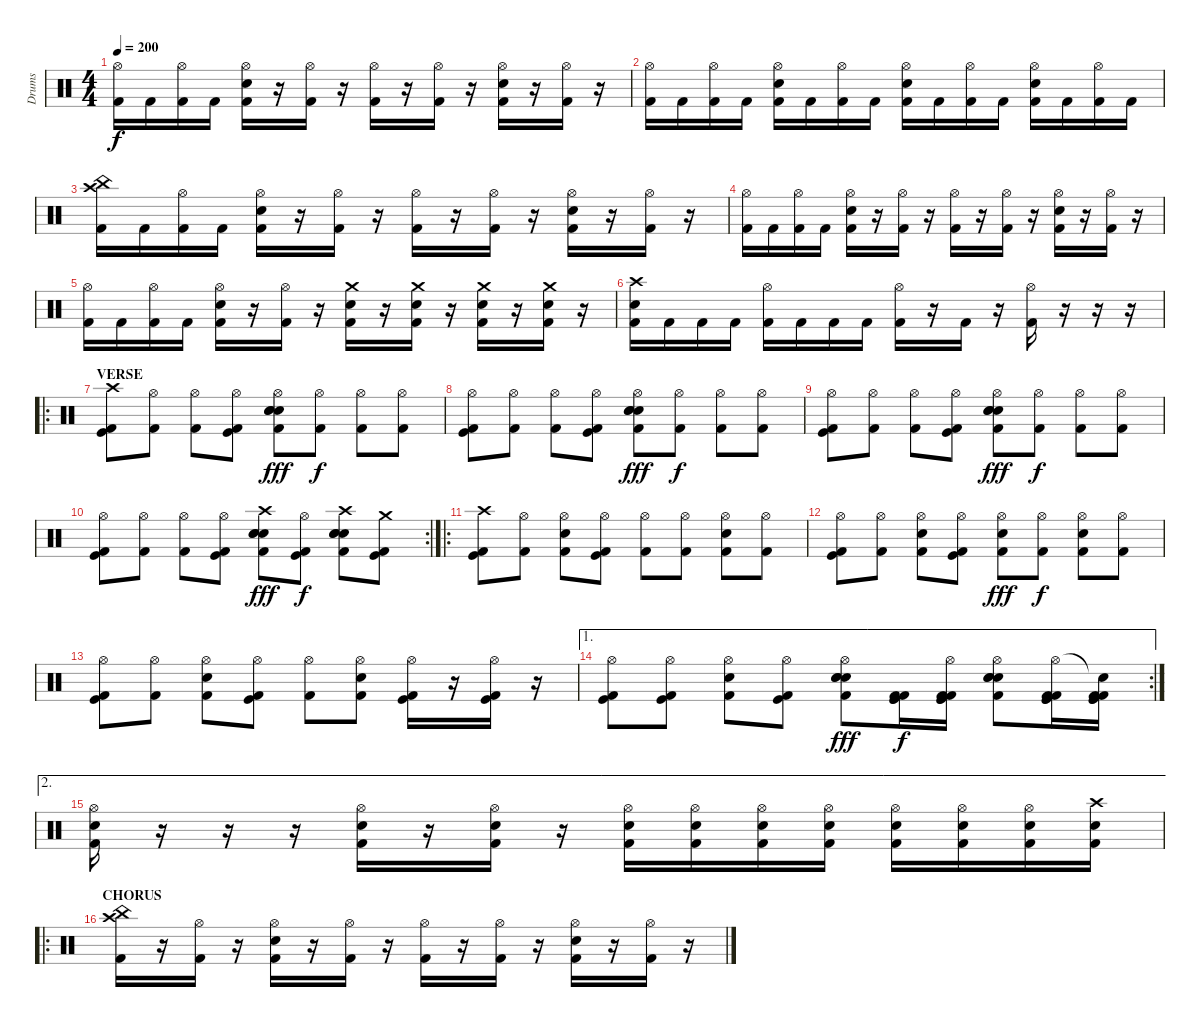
\track ("Drums" "Drums") {instrument percussion}
\staff {score}
\articulation defaults
\ts (4 4)
\tempo 200
\clef neutral
\ks c
("Hi-Hat (open)" "Kick (hit) 2").16{dy f} "Kick (hit) 2".16 ("Hi-Hat (open)" "Kick (hit) 2").16 "Kick (hit) 2".16 ("Hi-Hat (open)" "Electric Snare (hit)" "Kick (hit) 2").16 r.16 ("Hi-Hat (open)" "Kick (hit) 2").16 r.16 ("Hi-Hat (open)" "Kick (hit) 2").16 r.16 ("Hi-Hat (open)" "Kick (hit) 2").16 r.16 ("Hi-Hat (open)" "Electric Snare (hit)" "Kick (hit) 2").16 r.16 ("Hi-Hat (open)" "Kick (hit) 2").16 r.16 |
("Hi-Hat (open)" "Kick (hit) 2").16 "Kick (hit) 2".16 ("Hi-Hat (open)" "Kick (hit) 2").16 "Kick (hit) 2".16 ("Hi-Hat (open)" "Electric Snare (hit)" "Kick (hit) 2").16 "Kick (hit) 2".16 ("Hi-Hat (open)" "Kick (hit) 2").16 "Kick (hit) 2".16 ("Hi-Hat (open)" "Electric Snare (hit)" "Kick (hit) 2").16 "Kick (hit) 2".16 ("Hi-Hat (open)" "Kick (hit) 2").16 "Kick (hit) 2".16 ("Hi-Hat (open)" "Electric Snare (hit)" "Kick (hit) 2").16 "Kick (hit) 2".16 ("Hi-Hat (open)" "Kick (hit) 2").16 "Kick (hit) 2".16 |
("Crash high (hit)" "China (hit)" "Kick (hit) 2").16 "Kick (hit) 2".16 ("Hi-Hat (open)" "Kick (hit) 2").16 "Kick (hit) 2".16 ("Hi-Hat (open)" "Electric Snare (hit)" "Kick (hit) 2").16 r.16 ("Hi-Hat (open)" "Kick (hit) 2").16 r.16 ("Hi-Hat (open)" "Kick (hit) 2").16 r.16 ("Hi-Hat (open)" "Kick (hit) 2").16 r.16 ("Hi-Hat (open)" "Electric Snare (hit)" "Kick (hit) 2").16 r.16 ("Hi-Hat (open)" "Kick (hit) 2").16 r.16 |
("Hi-Hat (open)" "Kick (hit) 2").16 "Kick (hit) 2".16 ("Hi-Hat (open)" "Kick (hit) 2").16 "Kick (hit) 2".16 ("Hi-Hat (open)" "Electric Snare (hit)" "Kick (hit) 2").16 r.16 ("Hi-Hat (open)" "Kick (hit) 2").16 r.16 ("Hi-Hat (open)" "Kick (hit) 2").16 r.16 ("Hi-Hat (open)" "Kick (hit) 2").16 r.16 ("Hi-Hat (open)" "Electric Snare (hit)" "Kick (hit) 2").16 r.16 ("Hi-Hat (open)" "Kick (hit) 2").16 r.16 |
("Hi-Hat (open)" "Kick (hit) 2").16 "Kick (hit) 2".16 ("Hi-Hat (open)" "Kick (hit) 2").16 "Kick (hit) 2".16 ("Hi-Hat (open)" "Electric Snare (hit)" "Kick (hit) 2").16 r.16 ("Hi-Hat (open)" "Kick (hit) 2").16 r.16 ("Crash medium (hit)" "Electric Snare (hit)" "Kick (hit) 2").16 r.16 ("Crash medium (hit)" "Electric Snare (hit)" "Kick (hit) 2").16 r.16 ("Crash medium (hit)" "Electric Snare (hit)" "Kick (hit) 2").16 r.16 ("Crash medium (hit)" "Electric Snare (hit)" "Kick (hit) 2").16 r.16 |
("Kick (hit) 2" "Crash high (hit)" "Electric Snare (hit)").16 "Kick (hit) 2".16 "Kick (hit) 2".16 "Kick (hit) 2".16 ("Kick (hit) 2" "Hi-Hat (open)").16 "Kick (hit) 2".16 "Kick (hit) 2".16 "Kick (hit) 2".16 ("Kick (hit) 2" "Hi-Hat (open)").16 r.16 "Kick (hit) 2".16 r.16 ("Kick (hit) 2" "Hi-Hat (open)").16 r.16 r.16 r.16 |
\ro
\section ("" "VERSE")
("Crash high (hit)" "Kick (hit)" "Kick (hit) 2").8 ("Hi-Hat (open)" "Kick (hit) 2").8 ("Hi-Hat (open)" "Kick (hit) 2").8 ("Hi-Hat (open)" "Kick (hit)" "Kick (hit) 2").8 ("Hi-Hat (open)" "Electric Snare (hit)" "Electric Snare (hit)" "Electric Snare (hit)" "Kick (hit) 2").8{dy fff} ("Hi-Hat (open)" "Kick (hit) 2").8{dy f} ("Hi-Hat (open)" "Kick (hit) 2").8 ("Hi-Hat (open)" "Kick (hit) 2").8 |
("Hi-Hat (open)" "Kick (hit)" "Kick (hit) 2").8 ("Hi-Hat (open)" "Kick (hit) 2").8 ("Hi-Hat (open)" "Kick (hit) 2").8 ("Hi-Hat (open)" "Kick (hit)" "Kick (hit) 2").8 ("Hi-Hat (open)" "Electric Snare (hit)" "Electric Snare (hit)" "Electric Snare (hit)" "Kick (hit) 2").8{dy fff} ("Hi-Hat (open)" "Kick (hit) 2").8{dy f} ("Hi-Hat (open)" "Kick (hit) 2").8 ("Hi-Hat (open)" "Kick (hit) 2").8 |
("Hi-Hat (open)" "Kick (hit)" "Kick (hit) 2").8 ("Hi-Hat (open)" "Kick (hit) 2").8 ("Hi-Hat (open)" "Kick (hit) 2").8 ("Hi-Hat (open)" "Kick (hit)" "Kick (hit) 2").8 ("Hi-Hat (open)" "Electric Snare (hit)" "Electric Snare (hit)" "Electric Snare (hit)" "Kick (hit) 2").8{dy fff} ("Hi-Hat (open)" "Kick (hit) 2").8{dy f} ("Hi-Hat (open)" "Kick (hit) 2").8 ("Hi-Hat (open)" "Kick (hit) 2").8 |
\rc 2
("Hi-Hat (open)" "Kick (hit)" "Kick (hit) 2").8 ("Hi-Hat (open)" "Kick (hit) 2").8 ("Hi-Hat (open)" "Kick (hit) 2").8 ("Hi-Hat (open)" "Kick (hit)" "Kick (hit) 2").8 ("Crash high (hit)" "Electric Snare (hit)" "Electric Snare (hit)" "Electric Snare (hit)" "Kick (hit) 2").8{dy fff} ("Hi-Hat (open)" "Kick (hit)" "Kick (hit) 2").8{dy f} ("Crash high (hit)" "Electric Snare (hit)" "Electric Snare (hit)" "Electric Snare (hit)" "Kick (hit) 2").8 ("Crash medium (hit)" "Kick (hit)" "Kick (hit) 2").8 |
\ro
("Crash high (hit)" "Kick (hit)" "Kick (hit) 2").8 ("Hi-Hat (open)" "Kick (hit) 2").8 ("Hi-Hat (open)" "Electric Snare (hit)" "Kick (hit) 2").8 ("Hi-Hat (open)" "Kick (hit)" "Kick (hit) 2").8 ("Hi-Hat (open)" "Kick (hit) 2").8 ("Hi-Hat (open)" "Kick (hit) 2").8 ("Hi-Hat (open)" "Electric Snare (hit)" "Kick (hit) 2").8 ("Hi-Hat (open)" "Kick (hit) 2").8 |
("Hi-Hat (open)" "Kick (hit)" "Kick (hit) 2").8 ("Hi-Hat (open)" "Kick (hit) 2").8 ("Hi-Hat (open)" "Electric Snare (hit)" "Kick (hit) 2").8 ("Hi-Hat (open)" "Kick (hit)" "Kick (hit) 2").8 ("Hi-Hat (open)" "Electric Snare (hit)" "Kick (hit) 2").8{dy fff} ("Hi-Hat (open)" "Kick (hit) 2").8{dy f} ("Hi-Hat (open)" "Electric Snare (hit)" "Kick (hit) 2").8 ("Hi-Hat (open)" "Kick (hit) 2").8 |
("Hi-Hat (open)" "Kick (hit)" "Kick (hit) 2").8 ("Hi-Hat (open)" "Kick (hit) 2").8 ("Hi-Hat (open)" "Electric Snare (hit)" "Kick (hit) 2").8 ("Hi-Hat (open)" "Kick (hit)" "Kick (hit) 2").8 ("Hi-Hat (open)" "Kick (hit) 2").8 ("Hi-Hat (open)" "Electric Snare (hit)" "Kick (hit) 2").8 ("Hi-Hat (open)" "Kick (hit)" "Kick (hit) 2").16 r.16 ("Hi-Hat (open)" "Kick (hit)" "Kick (hit) 2").16 r.16 |
\ae 1
\rc 2
("Hi-Hat (open)" "Kick (hit)" "Kick (hit) 2").8 ("Hi-Hat (open)" "Kick (hit)" "Kick (hit) 2").8 ("Hi-Hat (open)" "Electric Snare (hit)" "Kick (hit) 2").8 ("Hi-Hat (open)" "Kick (hit)" "Kick (hit) 2").8 ("Hi-Hat (open)" "Electric Snare (hit)" "Electric Snare (hit)" "Electric Snare (hit)" "Kick (hit) 2").8{dy fff} ("Kick (hit) 2" "Kick (hit)" "Kick (hit)" "Kick (hit) 2").16{dy f} ("Hi-Hat (open)" "Kick (hit) 2" "Kick (hit)" "Kick (hit)" "Kick (hit) 2").16 ("Hi-Hat (open)" "Electric Snare (hit)" "Electric Snare (hit)" "Electric Snare (hit)" "Kick (hit) 2").8 ("Hi-Hat (open)" "Kick (hit) 2" "Kick (hit)" "Kick (hit)" "Kick (hit) 2").16 ("Snare (hit)"{t} "Kick (hit) 2" "Kick (hit)" "Kick (hit)" "Kick (hit) 2").16 |
\ae 2
("Hi-Hat (open)" "Electric Snare (hit)" "Kick (hit) 2").16 r.16 r.16 r.16 ("Hi-Hat (open)" "Electric Snare (hit)" "Kick (hit) 2").16 r.16 ("Hi-Hat (open)" "Electric Snare (hit)" "Kick (hit) 2").16 r.16 ("Hi-Hat (open)" "Electric Snare (hit)" "Kick (hit) 2").16 ("Hi-Hat (open)" "Electric Snare (hit)" "Kick (hit) 2").16 ("Hi-Hat (open)" "Electric Snare (hit)" "Kick (hit) 2").16 ("Hi-Hat (open)" "Electric Snare (hit)" "Kick (hit) 2").16 ("Hi-Hat (open)" "Electric Snare (hit)" "Kick (hit) 2").16 ("Hi-Hat (open)" "Electric Snare (hit)" "Kick (hit) 2").16 ("Hi-Hat (open)" "Electric Snare (hit)" "Kick (hit) 2").16 ("Crash high (hit)" "Electric Snare (hit)" "Kick (hit) 2").16 |
\ro
\section ("" "CHORUS")
("Crash high (hit)" "China (hit)" "Kick (hit) 2").16 r.16 ("Hi-Hat (open)" "Kick (hit) 2").16 r.16 ("Hi-Hat (open)" "Electric Snare (hit)" "Kick (hit) 2").16 r.16 ("Hi-Hat (open)" "Kick (hit) 2").16 r.16 ("Hi-Hat (open)" "Kick (hit) 2").16 r.16 ("Hi-Hat (open)" "Kick (hit) 2").16 r.16 ("Hi-Hat (open)" "Electric Snare (hit)" "Kick (hit) 2").16 r.16 ("Hi-Hat (open)" "Kick (hit) 2").16 r.16
